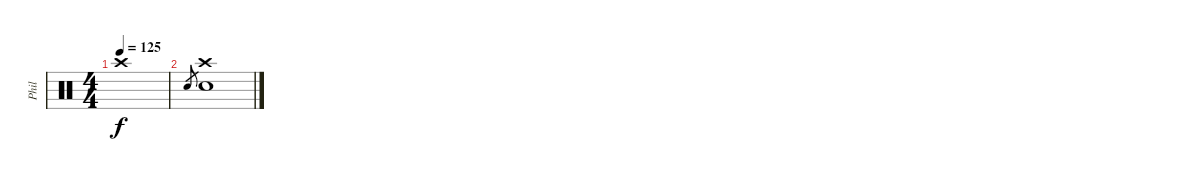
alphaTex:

\track ("Phil" "Phil") {instrument percussion}
\staff {score}
\articulation defaults
\ts (4 4)
\tempo 125
\clef neutral
\ks c "Crash high (hit)".1{dy f}
|
"Snare (hit) 2".8{gr} ("Crash high (hit)" "Snare (hit) 2").1
